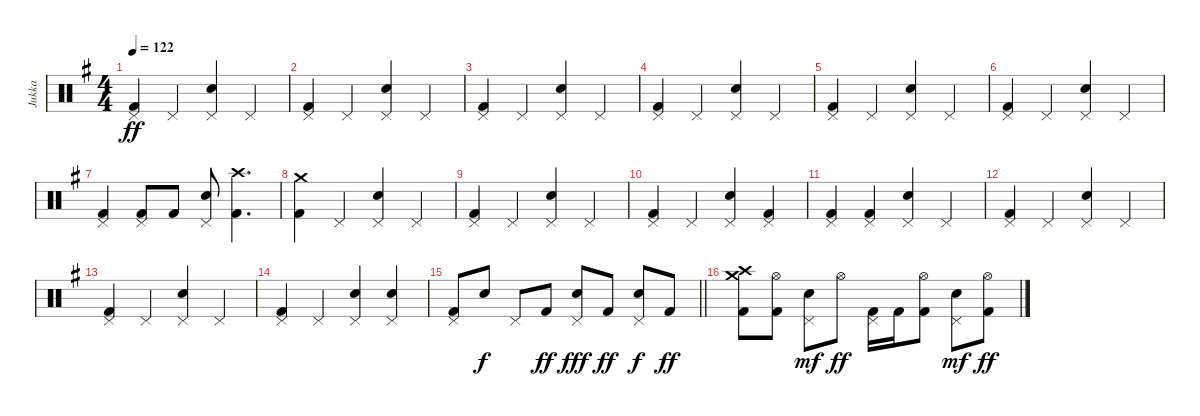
\track ("Jukka" "Jukka") {instrument percussion}
\staff {score}
\articulation defaults
\ts (4 4)
\tempo 122
\clef neutral
\ks g
("Pedal Hi-Hat (hit)" "Kick (hit) 2").4{dy ff} "Pedal Hi-Hat (hit)".4 ("Pedal Hi-Hat (hit)" "Electric Snare (hit)").4 "Pedal Hi-Hat (hit)".4 |
("Pedal Hi-Hat (hit)" "Kick (hit) 2").4 "Pedal Hi-Hat (hit)".4 ("Pedal Hi-Hat (hit)" "Electric Snare (hit)").4 "Pedal Hi-Hat (hit)".4 |
("Pedal Hi-Hat (hit)" "Kick (hit) 2").4 "Pedal Hi-Hat (hit)".4 ("Pedal Hi-Hat (hit)" "Electric Snare (hit)").4 "Pedal Hi-Hat (hit)".4 |
("Pedal Hi-Hat (hit)" "Kick (hit) 2").4 "Pedal Hi-Hat (hit)".4 ("Pedal Hi-Hat (hit)" "Electric Snare (hit)").4 "Pedal Hi-Hat (hit)".4 |
("Pedal Hi-Hat (hit)" "Kick (hit) 2").4 "Pedal Hi-Hat (hit)".4 ("Pedal Hi-Hat (hit)" "Electric Snare (hit)").4 "Pedal Hi-Hat (hit)".4 |
("Pedal Hi-Hat (hit)" "Kick (hit) 2").4 "Pedal Hi-Hat (hit)".4 ("Pedal Hi-Hat (hit)" "Electric Snare (hit)").4 "Pedal Hi-Hat (hit)".4 |
("Pedal Hi-Hat (hit)" "Kick (hit) 2").4 ("Pedal Hi-Hat (hit)" "Kick (hit) 2").8 "Kick (hit) 2".8 ("Pedal Hi-Hat (hit)" "Electric Snare (hit)").8 ("Crash high (hit)" "Kick (hit) 2").4{d} |
("Crash medium (hit)" "Kick (hit) 2").4 "Pedal Hi-Hat (hit)".4 ("Pedal Hi-Hat (hit)" "Electric Snare (hit)").4 "Pedal Hi-Hat (hit)".4 |
("Pedal Hi-Hat (hit)" "Kick (hit) 2").4 "Pedal Hi-Hat (hit)".4 ("Pedal Hi-Hat (hit)" "Electric Snare (hit)").4 "Pedal Hi-Hat (hit)".4 |
("Pedal Hi-Hat (hit)" "Kick (hit) 2").4 "Pedal Hi-Hat (hit)".4 ("Pedal Hi-Hat (hit)" "Electric Snare (hit)").4 ("Pedal Hi-Hat (hit)" "Kick (hit) 2").4 |
("Pedal Hi-Hat (hit)" "Kick (hit) 2").4 ("Pedal Hi-Hat (hit)" "Kick (hit) 2").4 ("Pedal Hi-Hat (hit)" "Electric Snare (hit)").4 "Pedal Hi-Hat (hit)".4 |
("Pedal Hi-Hat (hit)" "Kick (hit) 2").4 "Pedal Hi-Hat (hit)".4 ("Pedal Hi-Hat (hit)" "Electric Snare (hit)").4 "Pedal Hi-Hat (hit)".4 |
("Pedal Hi-Hat (hit)" "Kick (hit) 2").4 "Pedal Hi-Hat (hit)".4 ("Pedal Hi-Hat (hit)" "Electric Snare (hit)").4 "Pedal Hi-Hat (hit)".4 |
("Pedal Hi-Hat (hit)" "Kick (hit) 2").4 "Pedal Hi-Hat (hit)".4 ("Pedal Hi-Hat (hit)" "Electric Snare (hit)").4 ("Pedal Hi-Hat (hit)" "Electric Snare (hit)").4 |
\barLineRight lightlight
("Pedal Hi-Hat (hit)" "Kick (hit) 2").8 "Electric Snare (hit)".8{dy f} "Pedal Hi-Hat (hit)".8 "Kick (hit) 2".8{dy ff} ("Pedal Hi-Hat (hit)" "Electric Snare (hit)").8{dy fff} "Kick (hit) 2".8{dy ff} ("Pedal Hi-Hat (hit)" "Electric Snare (hit)").8{dy f} "Kick (hit) 2".8{dy ff} |
("Crash medium (hit)" "Crash high (hit)" "Kick (hit) 2").8 ("Hi-Hat (open)" "Kick (hit) 2").8 ("Pedal Hi-Hat (hit)" "Electric Snare (hit)").8{dy mf} "Hi-Hat (open)".8{dy ff} ("Pedal Hi-Hat (hit)" "Kick (hit) 2").16 "Kick (hit) 2".16 ("Hi-Hat (open)" "Kick (hit) 2").8 ("Pedal Hi-Hat (hit)" "Electric Snare (hit)").8{dy mf} ("Hi-Hat (open)" "Kick (hit) 2").8{dy ff}
